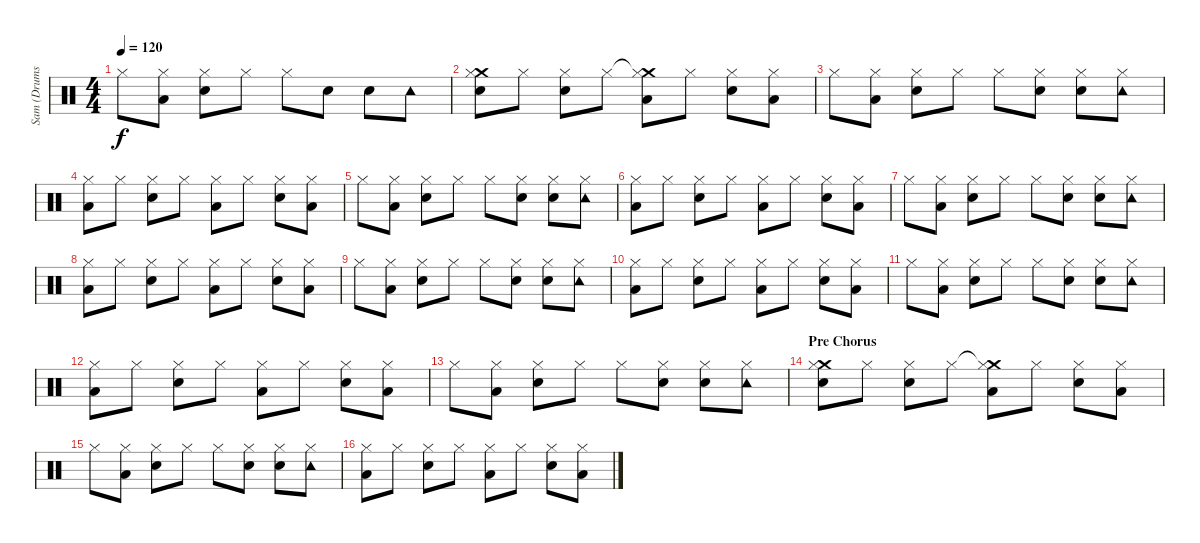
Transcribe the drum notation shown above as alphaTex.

\track ("Sam (Drums)" "Sam (Drums") {instrument percussion}
\staff {score}
\articulation defaults
\ts (4 4)
\tempo 120
\clef neutral
\ks c "Hi-Hat (closed)".8{dy f}
("Low Tom (hit)" "Hi-Hat (closed)").8 ("Snare (hit) 2" "Hi-Hat (closed)").8 "Hi-Hat (closed)".8 "Hi-Hat (closed)".8 "Electric Snare (hit)".8 "Snare (hit) 2".8 "Tambourine (hit)".8 |
("Crash medium (hit)" "Snare (hit) 2" "Hi-Hat (closed)").8 "Hi-Hat (closed)".8 ("Snare (hit) 2" "Hi-Hat (closed)").8 "Hi-Hat (closed)".8 ("Crash medium (hit)"{t} "Low Tom (hit)" "Hi-Hat (closed)").8 "Hi-Hat (closed)".8 ("Snare (hit) 2" "Hi-Hat (closed)").8 ("Low Tom (hit)" "Hi-Hat (closed)").8 |
"Hi-Hat (closed)".8 ("Low Tom (hit)" "Hi-Hat (closed)").8 ("Snare (hit) 2" "Hi-Hat (closed)").8 "Hi-Hat (closed)".8 "Hi-Hat (closed)".8 ("Snare (hit) 2" "Hi-Hat (closed)").8 ("Snare (hit) 2" "Hi-Hat (closed)").8 ("Tambourine (hit)" "Hi-Hat (closed)").8 |
("Low Tom (hit)" "Hi-Hat (closed)").8 "Hi-Hat (closed)".8 ("Snare (hit) 2" "Hi-Hat (closed)").8 "Hi-Hat (closed)".8 ("Low Tom (hit)" "Hi-Hat (closed)").8 "Hi-Hat (closed)".8 ("Snare (hit) 2" "Hi-Hat (closed)").8 ("Low Tom (hit)" "Hi-Hat (closed)").8 |
"Hi-Hat (closed)".8 ("Low Tom (hit)" "Hi-Hat (closed)").8 ("Snare (hit) 2" "Hi-Hat (closed)").8 "Hi-Hat (closed)".8 "Hi-Hat (closed)".8 ("Snare (hit) 2" "Hi-Hat (closed)").8 ("Snare (hit) 2" "Hi-Hat (closed)").8 ("Tambourine (hit)" "Hi-Hat (closed)").8 |
("Low Tom (hit)" "Hi-Hat (closed)").8 "Hi-Hat (closed)".8 ("Snare (hit) 2" "Hi-Hat (closed)").8 "Hi-Hat (closed)".8 ("Low Tom (hit)" "Hi-Hat (closed)").8 "Hi-Hat (closed)".8 ("Snare (hit) 2" "Hi-Hat (closed)").8 ("Low Tom (hit)" "Hi-Hat (closed)").8 |
"Hi-Hat (closed)".8 ("Low Tom (hit)" "Hi-Hat (closed)").8 ("Snare (hit) 2" "Hi-Hat (closed)").8 "Hi-Hat (closed)".8 "Hi-Hat (closed)".8 ("Snare (hit) 2" "Hi-Hat (closed)").8 ("Snare (hit) 2" "Hi-Hat (closed)").8 ("Tambourine (hit)" "Hi-Hat (closed)").8 |
("Low Tom (hit)" "Hi-Hat (closed)").8 "Hi-Hat (closed)".8 ("Snare (hit) 2" "Hi-Hat (closed)").8 "Hi-Hat (closed)".8 ("Low Tom (hit)" "Hi-Hat (closed)").8 "Hi-Hat (closed)".8 ("Snare (hit) 2" "Hi-Hat (closed)").8 ("Low Tom (hit)" "Hi-Hat (closed)").8 |
"Hi-Hat (closed)".8 ("Low Tom (hit)" "Hi-Hat (closed)").8 ("Snare (hit) 2" "Hi-Hat (closed)").8 "Hi-Hat (closed)".8 "Hi-Hat (closed)".8 ("Snare (hit) 2" "Hi-Hat (closed)").8 ("Snare (hit) 2" "Hi-Hat (closed)").8 ("Tambourine (hit)" "Hi-Hat (closed)").8 |
("Low Tom (hit)" "Hi-Hat (closed)").8 "Hi-Hat (closed)".8 ("Snare (hit) 2" "Hi-Hat (closed)").8 "Hi-Hat (closed)".8 ("Low Tom (hit)" "Hi-Hat (closed)").8 "Hi-Hat (closed)".8 ("Snare (hit) 2" "Hi-Hat (closed)").8 ("Low Tom (hit)" "Hi-Hat (closed)").8 |
"Hi-Hat (closed)".8 ("Low Tom (hit)" "Hi-Hat (closed)").8 ("Snare (hit) 2" "Hi-Hat (closed)").8 "Hi-Hat (closed)".8 "Hi-Hat (closed)".8 ("Snare (hit) 2" "Hi-Hat (closed)").8 ("Snare (hit) 2" "Hi-Hat (closed)").8 ("Tambourine (hit)" "Hi-Hat (closed)").8 |
("Low Tom (hit)" "Hi-Hat (closed)").8 "Hi-Hat (closed)".8 ("Snare (hit) 2" "Hi-Hat (closed)").8 "Hi-Hat (closed)".8 ("Low Tom (hit)" "Hi-Hat (closed)").8 "Hi-Hat (closed)".8 ("Snare (hit) 2" "Hi-Hat (closed)").8 ("Low Tom (hit)" "Hi-Hat (closed)").8 |
"Hi-Hat (closed)".8 ("Low Tom (hit)" "Hi-Hat (closed)").8 ("Snare (hit) 2" "Hi-Hat (closed)").8 "Hi-Hat (closed)".8 "Hi-Hat (closed)".8 ("Snare (hit) 2" "Hi-Hat (closed)").8 ("Snare (hit) 2" "Hi-Hat (closed)").8 ("Tambourine (hit)" "Hi-Hat (closed)").8 |
\section ("" "Pre Chorus")
("Crash medium (hit)" "Snare (hit) 2" "Hi-Hat (closed)").8 "Hi-Hat (closed)".8 ("Snare (hit) 2" "Hi-Hat (closed)").8 "Hi-Hat (closed)".8 ("Crash medium (hit)"{t} "Low Tom (hit)" "Hi-Hat (closed)").8 "Hi-Hat (closed)".8 ("Snare (hit) 2" "Hi-Hat (closed)").8 ("Low Tom (hit)" "Hi-Hat (closed)").8 |
"Hi-Hat (closed)".8 ("Low Tom (hit)" "Hi-Hat (closed)").8 ("Snare (hit) 2" "Hi-Hat (closed)").8 "Hi-Hat (closed)".8 "Hi-Hat (closed)".8 ("Snare (hit) 2" "Hi-Hat (closed)").8 ("Snare (hit) 2" "Hi-Hat (closed)").8 ("Tambourine (hit)" "Hi-Hat (closed)").8 |
("Low Tom (hit)" "Hi-Hat (closed)").8 "Hi-Hat (closed)".8 ("Snare (hit) 2" "Hi-Hat (closed)").8 "Hi-Hat (closed)".8 ("Low Tom (hit)" "Hi-Hat (closed)").8 "Hi-Hat (closed)".8 ("Snare (hit) 2" "Hi-Hat (closed)").8 ("Low Tom (hit)" "Hi-Hat (closed)").8
